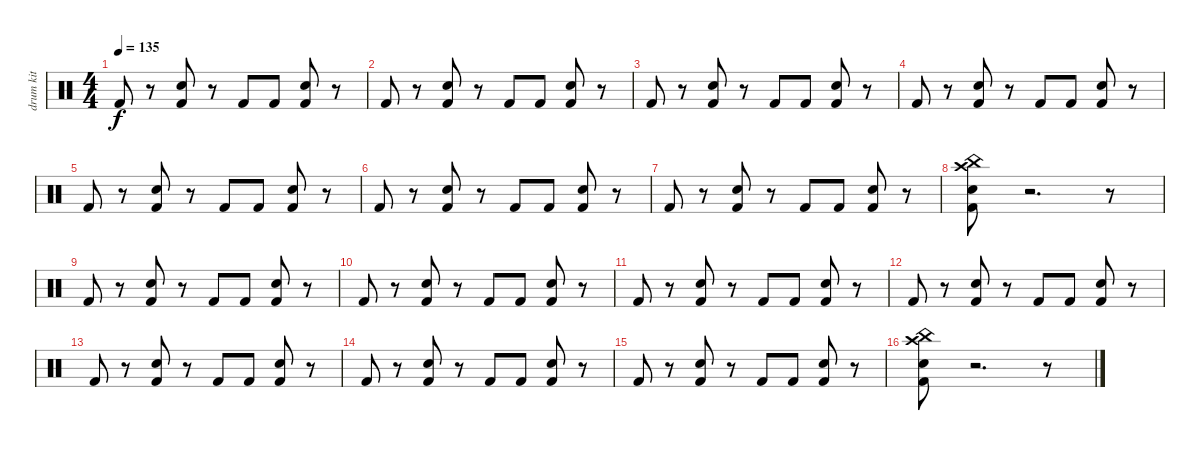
\track ("drum kit" "drum kit") {instrument percussion}
\staff {score}
\articulation defaults
\ts (4 4)
\tempo 135
\clef neutral
\ks c "Kick (hit) 2".8{dy f}
r.8 ("Snare (hit) 2" "Kick (hit) 2").8 r.8 "Kick (hit) 2".8 "Kick (hit) 2".8 ("Snare (hit) 2" "Kick (hit) 2").8 r.8 |
"Kick (hit) 2".8 r.8 ("Snare (hit) 2" "Kick (hit) 2").8 r.8 "Kick (hit) 2".8 "Kick (hit) 2".8 ("Snare (hit) 2" "Kick (hit) 2").8 r.8 |
"Kick (hit) 2".8 r.8 ("Snare (hit) 2" "Kick (hit) 2").8 r.8 "Kick (hit) 2".8 "Kick (hit) 2".8 ("Snare (hit) 2" "Kick (hit) 2").8 r.8 |
"Kick (hit) 2".8 r.8 ("Snare (hit) 2" "Kick (hit) 2").8 r.8 "Kick (hit) 2".8 "Kick (hit) 2".8 ("Snare (hit) 2" "Kick (hit) 2").8 r.8 |
"Kick (hit) 2".8 r.8 ("Snare (hit) 2" "Kick (hit) 2").8 r.8 "Kick (hit) 2".8 "Kick (hit) 2".8 ("Snare (hit) 2" "Kick (hit) 2").8 r.8 |
"Kick (hit) 2".8 r.8 ("Snare (hit) 2" "Kick (hit) 2").8 r.8 "Kick (hit) 2".8 "Kick (hit) 2".8 ("Snare (hit) 2" "Kick (hit) 2").8 r.8 |
"Kick (hit) 2".8 r.8 ("Snare (hit) 2" "Kick (hit) 2").8 r.8 "Kick (hit) 2".8 "Kick (hit) 2".8 ("Snare (hit) 2" "Kick (hit) 2").8 r.8 |
("Crash high (hit)" "China (hit)" "Snare (hit) 2" "Kick (hit) 2").8 r.2{d} r.8 |
"Kick (hit) 2".8 r.8 ("Snare (hit) 2" "Kick (hit) 2").8 r.8 "Kick (hit) 2".8 "Kick (hit) 2".8 ("Snare (hit) 2" "Kick (hit) 2").8 r.8 |
"Kick (hit) 2".8 r.8 ("Snare (hit) 2" "Kick (hit) 2").8 r.8 "Kick (hit) 2".8 "Kick (hit) 2".8 ("Snare (hit) 2" "Kick (hit) 2").8 r.8 |
"Kick (hit) 2".8 r.8 ("Snare (hit) 2" "Kick (hit) 2").8 r.8 "Kick (hit) 2".8 "Kick (hit) 2".8 ("Snare (hit) 2" "Kick (hit) 2").8 r.8 |
"Kick (hit) 2".8 r.8 ("Snare (hit) 2" "Kick (hit) 2").8 r.8 "Kick (hit) 2".8 "Kick (hit) 2".8 ("Snare (hit) 2" "Kick (hit) 2").8 r.8 |
"Kick (hit) 2".8 r.8 ("Snare (hit) 2" "Kick (hit) 2").8 r.8 "Kick (hit) 2".8 "Kick (hit) 2".8 ("Snare (hit) 2" "Kick (hit) 2").8 r.8 |
"Kick (hit) 2".8 r.8 ("Snare (hit) 2" "Kick (hit) 2").8 r.8 "Kick (hit) 2".8 "Kick (hit) 2".8 ("Snare (hit) 2" "Kick (hit) 2").8 r.8 |
"Kick (hit) 2".8 r.8 ("Snare (hit) 2" "Kick (hit) 2").8 r.8 "Kick (hit) 2".8 "Kick (hit) 2".8 ("Snare (hit) 2" "Kick (hit) 2").8 r.8 |
("Snare (hit) 2" "China (hit)" "Crash high (hit)" "Kick (hit) 2").8 r.2{d} r.8
